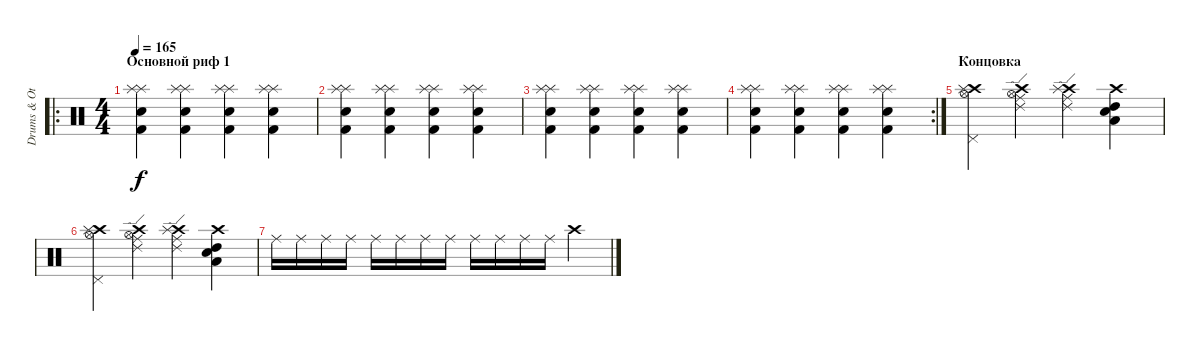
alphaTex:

\track ("Drums & Other percussion" "Drums & Ot") {instrument percussion}
\staff {score}
\articulation defaults
\ro
\ts (4 4)
\section ("" "Основной риф 1")
\tempo 165
\clef neutral
\ks c
("Splash (hit)" "Splash (hit)" "Electric Snare (hit)" "Kick (hit) 2").4{dy f} ("Splash (hit)" "Splash (hit)" "Electric Snare (hit)" "Kick (hit) 2").4 ("Splash (hit)" "Splash (hit)" "Electric Snare (hit)" "Kick (hit) 2").4 ("Splash (hit)" "Splash (hit)" "Electric Snare (hit)" "Kick (hit) 2").4 |
("Splash (hit)" "Splash (hit)" "Electric Snare (hit)" "Kick (hit) 2").4 ("Splash (hit)" "Splash (hit)" "Electric Snare (hit)" "Kick (hit) 2").4 ("Splash (hit)" "Splash (hit)" "Electric Snare (hit)" "Kick (hit) 2").4 ("Splash (hit)" "Splash (hit)" "Electric Snare (hit)" "Kick (hit) 2").4 |
("Splash (hit)" "Splash (hit)" "Electric Snare (hit)" "Kick (hit) 2").4 ("Splash (hit)" "Splash (hit)" "Electric Snare (hit)" "Kick (hit) 2").4 ("Splash (hit)" "Splash (hit)" "Electric Snare (hit)" "Kick (hit) 2").4 ("Splash (hit)" "Splash (hit)" "Electric Snare (hit)" "Kick (hit) 2").4 |
\rc 2
("Splash (hit)" "Splash (hit)" "Electric Snare (hit)" "Kick (hit) 2").4 ("Splash (hit)" "Splash (hit)" "Electric Snare (hit)" "Kick (hit) 2").4 ("Splash (hit)" "Splash (hit)" "Electric Snare (hit)" "Kick (hit) 2").4 ("Splash (hit)" "Splash (hit)" "Electric Snare (hit)" "Kick (hit) 2").4 |
\section ("" "Концовка")
("Crash high (hit)" "Splash (hit)" "Hi-Hat (open)" "Pedal Hi-Hat (hit)").4 ("Crash high (hit)" "Ride (edge) 2" "Ride (middle)" "Hi-Hat (open)").4 ("Crash high (hit)" "Splash (hit)" "Ride (edge) 2" "Ride (middle)").4 ("Crash high (hit)" "Electric Snare (hit)" "Low Tom (hit)" "High Tom (hit)").4 |
("Crash high (hit)" "Splash (hit)" "Hi-Hat (open)" "Pedal Hi-Hat (hit)").4 ("Crash high (hit)" "Ride (edge) 2" "Ride (middle)" "Hi-Hat (open)").4 ("Crash high (hit)" "Splash (hit)" "Ride (edge) 2" "Ride (middle)").4 ("Crash high (hit)" "Electric Snare (hit)" "Low Tom (hit)" "High Tom (hit)").4 |
"Ride (middle)".16 "Ride (middle)".16 "Ride (middle)".16 "Ride (middle)".16 "Ride (middle)".16 "Ride (middle)".16 "Ride (middle)".16 "Ride (middle)".16 "Ride (middle)".16 "Ride (middle)".16 "Ride (middle)".16 "Ride (middle)".16 "Crash high (hit)".4
